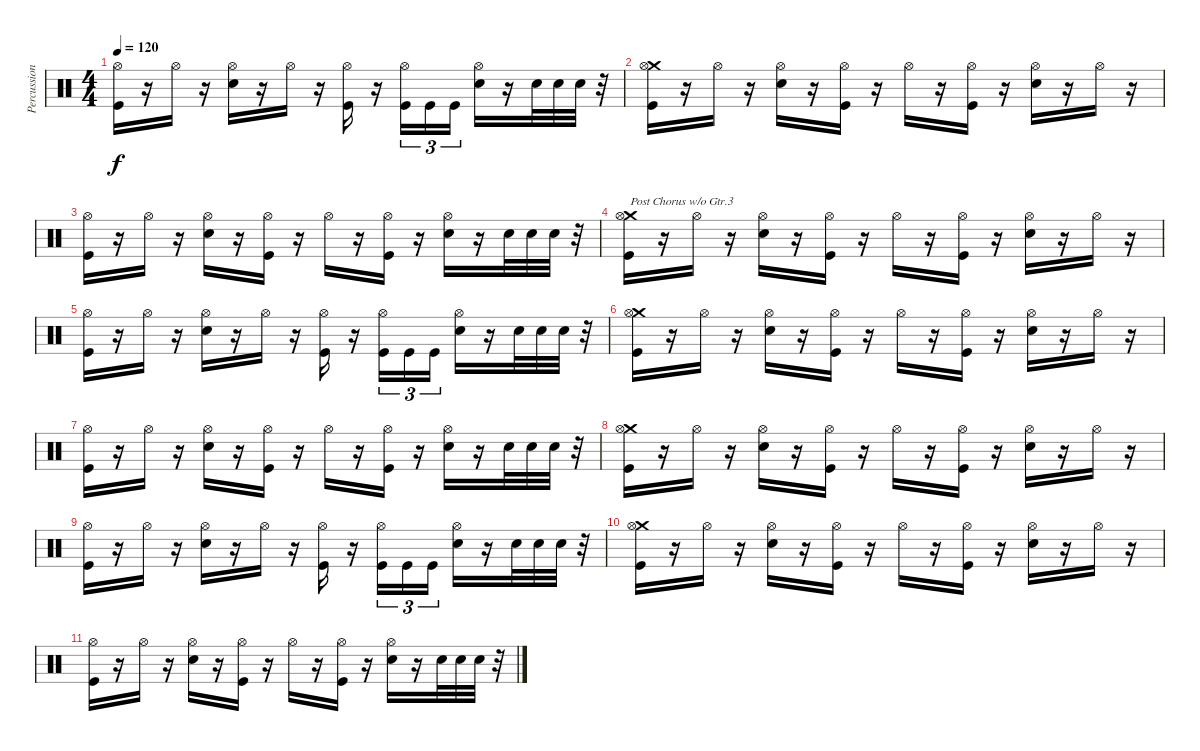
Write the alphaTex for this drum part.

\track ("Percussion" "Percussion") {instrument percussion}
\staff {score}
\articulation defaults
\ts (4 4)
\tempo 120
\clef neutral
\ks c
("Hi-Hat (open)" "Kick (hit)").16{dy f} r.16 "Hi-Hat (open)".16 r.16 ("Hi-Hat (open)" "Electric Snare (hit)").16 r.16 "Hi-Hat (open)".16 r.16 ("Hi-Hat (open)" "Kick (hit)").16 r.16 ("Hi-Hat (open)" "Kick (hit)").16{tu (3 2)} "Kick (hit)".16{tu (3 2)} "Kick (hit)".16{tu (3 2)} ("Hi-Hat (open)" "Electric Snare (hit)").16 r.16 "Electric Snare (hit)".32 "Electric Snare (hit)".32 "Electric Snare (hit)".32 r.32 |
("Crash medium (hit)" "Hi-Hat (open)" "Kick (hit)").16 r.16 "Hi-Hat (open)".16 r.16 ("Hi-Hat (open)" "Electric Snare (hit)").16 r.16 ("Hi-Hat (open)" "Kick (hit)").16 r.16 "Hi-Hat (open)".16 r.16 ("Hi-Hat (open)" "Kick (hit)").16 r.16 ("Hi-Hat (open)" "Electric Snare (hit)").16 r.16 "Hi-Hat (open)".16 r.16 |
("Hi-Hat (open)" "Kick (hit)").16 r.16 "Hi-Hat (open)".16 r.16 ("Hi-Hat (open)" "Electric Snare (hit)").16 r.16 ("Hi-Hat (open)" "Kick (hit)").16 r.16 "Hi-Hat (open)".16 r.16 ("Hi-Hat (open)" "Kick (hit)").16 r.16 ("Hi-Hat (open)" "Electric Snare (hit)").16 r.16 "Electric Snare (hit)".32 "Electric Snare (hit)".32 "Electric Snare (hit)".32 r.32 |
("Crash medium (hit)" "Hi-Hat (open)" "Kick (hit)").16{txt "Post Chorus w/o Gtr.3"} r.16 "Hi-Hat (open)".16 r.16 ("Hi-Hat (open)" "Electric Snare (hit)").16 r.16 ("Hi-Hat (open)" "Kick (hit)").16 r.16 "Hi-Hat (open)".16 r.16 ("Hi-Hat (open)" "Kick (hit)").16 r.16 ("Hi-Hat (open)" "Electric Snare (hit)").16 r.16 "Hi-Hat (open)".16 r.16 |
("Hi-Hat (open)" "Kick (hit)").16 r.16 "Hi-Hat (open)".16 r.16 ("Hi-Hat (open)" "Electric Snare (hit)").16 r.16 "Hi-Hat (open)".16 r.16 ("Hi-Hat (open)" "Kick (hit)").16 r.16 ("Hi-Hat (open)" "Kick (hit)").16{tu (3 2)} "Kick (hit)".16{tu (3 2)} "Kick (hit)".16{tu (3 2)} ("Hi-Hat (open)" "Electric Snare (hit)").16 r.16 "Electric Snare (hit)".32 "Electric Snare (hit)".32 "Electric Snare (hit)".32 r.32 |
("Crash medium (hit)" "Hi-Hat (open)" "Kick (hit)").16 r.16 "Hi-Hat (open)".16 r.16 ("Hi-Hat (open)" "Electric Snare (hit)").16 r.16 ("Hi-Hat (open)" "Kick (hit)").16 r.16 "Hi-Hat (open)".16 r.16 ("Hi-Hat (open)" "Kick (hit)").16 r.16 ("Hi-Hat (open)" "Electric Snare (hit)").16 r.16 "Hi-Hat (open)".16 r.16 |
("Hi-Hat (open)" "Kick (hit)").16 r.16 "Hi-Hat (open)".16 r.16 ("Hi-Hat (open)" "Electric Snare (hit)").16 r.16 ("Hi-Hat (open)" "Kick (hit)").16 r.16 "Hi-Hat (open)".16 r.16 ("Hi-Hat (open)" "Kick (hit)").16 r.16 ("Hi-Hat (open)" "Electric Snare (hit)").16 r.16 "Electric Snare (hit)".32 "Electric Snare (hit)".32 "Electric Snare (hit)".32 r.32 |
("Crash medium (hit)" "Hi-Hat (open)" "Kick (hit)").16 r.16 "Hi-Hat (open)".16 r.16 ("Hi-Hat (open)" "Electric Snare (hit)").16 r.16 ("Hi-Hat (open)" "Kick (hit)").16 r.16 "Hi-Hat (open)".16 r.16 ("Hi-Hat (open)" "Kick (hit)").16 r.16 ("Hi-Hat (open)" "Electric Snare (hit)").16 r.16 "Hi-Hat (open)".16 r.16 |
("Hi-Hat (open)" "Kick (hit)").16 r.16 "Hi-Hat (open)".16 r.16 ("Hi-Hat (open)" "Electric Snare (hit)").16 r.16 "Hi-Hat (open)".16 r.16 ("Hi-Hat (open)" "Kick (hit)").16 r.16 ("Hi-Hat (open)" "Kick (hit)").16{tu (3 2)} "Kick (hit)".16{tu (3 2)} "Kick (hit)".16{tu (3 2)} ("Hi-Hat (open)" "Electric Snare (hit)").16 r.16 "Electric Snare (hit)".32 "Electric Snare (hit)".32 "Electric Snare (hit)".32 r.32 |
("Crash medium (hit)" "Hi-Hat (open)" "Kick (hit)").16 r.16 "Hi-Hat (open)".16 r.16 ("Hi-Hat (open)" "Electric Snare (hit)").16 r.16 ("Hi-Hat (open)" "Kick (hit)").16 r.16 "Hi-Hat (open)".16 r.16 ("Hi-Hat (open)" "Kick (hit)").16 r.16 ("Hi-Hat (open)" "Electric Snare (hit)").16 r.16 "Hi-Hat (open)".16 r.16 |
("Hi-Hat (open)" "Kick (hit)").16 r.16 "Hi-Hat (open)".16 r.16 ("Hi-Hat (open)" "Electric Snare (hit)").16 r.16 ("Hi-Hat (open)" "Kick (hit)").16 r.16 "Hi-Hat (open)".16 r.16 ("Hi-Hat (open)" "Kick (hit)").16 r.16 ("Hi-Hat (open)" "Electric Snare (hit)").16 r.16 "Electric Snare (hit)".32 "Electric Snare (hit)".32 "Electric Snare (hit)".32 r.32
